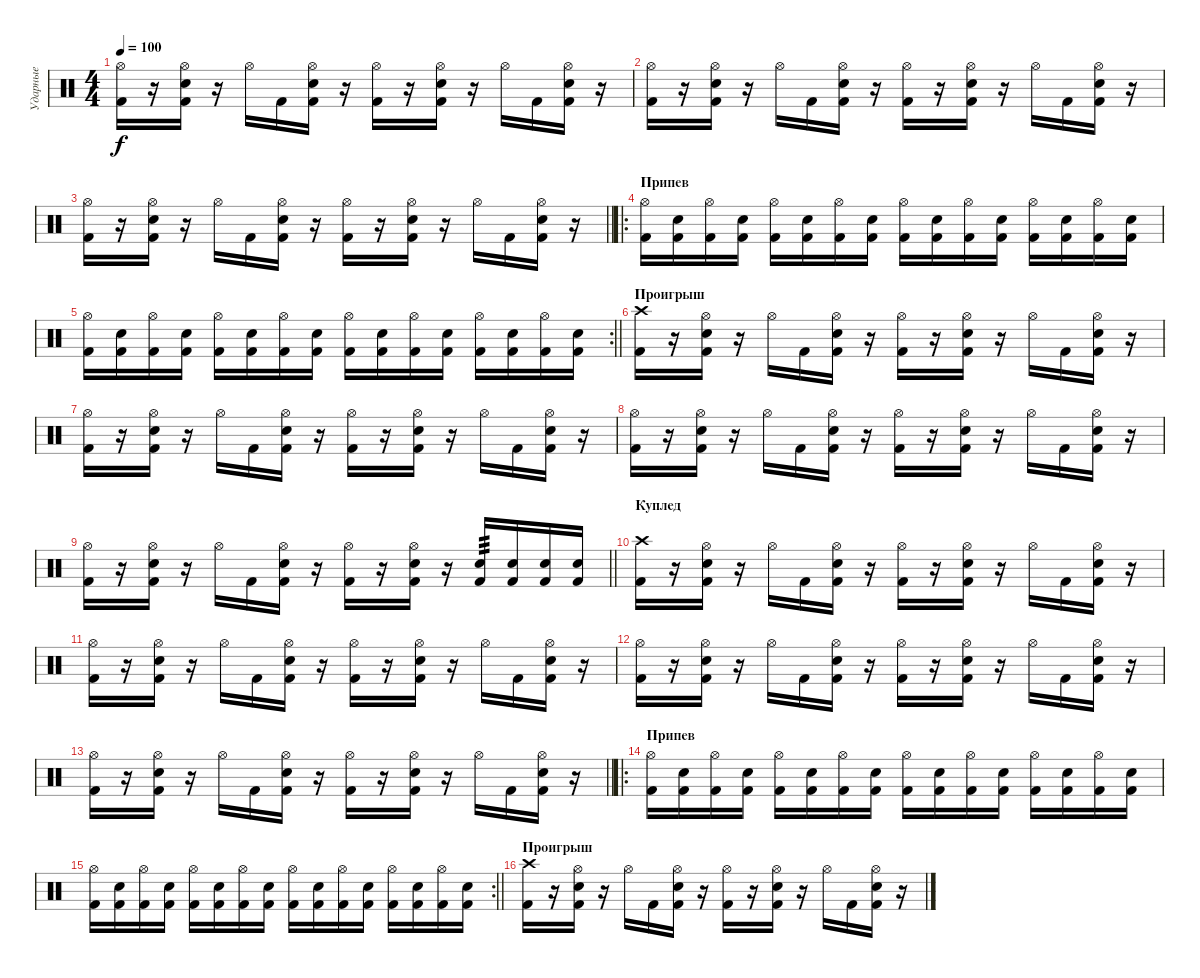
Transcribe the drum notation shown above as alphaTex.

\track ("Ударные" "Ударные") {instrument percussion}
\staff {score}
\articulation defaults
\ts (4 4)
\tempo 100
\clef neutral
\ks c
("Kick (hit) 2" "Hi-Hat (open)").16{dy f} r.16 ("Kick (hit) 2" "Electric Snare (hit)" "Hi-Hat (open)").16 r.16 "Hi-Hat (open)".16 "Kick (hit) 2".16 ("Kick (hit) 2" "Electric Snare (hit)" "Hi-Hat (open)").16 r.16 ("Kick (hit) 2" "Hi-Hat (open)").16 r.16 ("Kick (hit) 2" "Electric Snare (hit)" "Hi-Hat (open)").16 r.16 "Hi-Hat (open)".16 "Kick (hit) 2".16 ("Kick (hit) 2" "Electric Snare (hit)" "Hi-Hat (open)").16 r.16 |
("Kick (hit) 2" "Hi-Hat (open)").16 r.16 ("Kick (hit) 2" "Electric Snare (hit)" "Hi-Hat (open)").16 r.16 "Hi-Hat (open)".16 "Kick (hit) 2".16 ("Kick (hit) 2" "Electric Snare (hit)" "Hi-Hat (open)").16 r.16 ("Kick (hit) 2" "Hi-Hat (open)").16 r.16 ("Kick (hit) 2" "Electric Snare (hit)" "Hi-Hat (open)").16 r.16 "Hi-Hat (open)".16 "Kick (hit) 2".16 ("Kick (hit) 2" "Electric Snare (hit)" "Hi-Hat (open)").16 r.16 |
\barLineRight lightlight
("Kick (hit) 2" "Hi-Hat (open)").16 r.16 ("Kick (hit) 2" "Electric Snare (hit)" "Hi-Hat (open)").16 r.16 "Hi-Hat (open)".16 "Kick (hit) 2".16 ("Kick (hit) 2" "Electric Snare (hit)" "Hi-Hat (open)").16 r.16 ("Kick (hit) 2" "Hi-Hat (open)").16 r.16 ("Kick (hit) 2" "Electric Snare (hit)" "Hi-Hat (open)").16 r.16 "Hi-Hat (open)".16 "Kick (hit) 2".16 ("Kick (hit) 2" "Electric Snare (hit)" "Hi-Hat (open)").16 r.16 |
\ro
\section ("" "Припев")
("Kick (hit) 2" "Hi-Hat (open)").16 ("Electric Snare (hit)" "Kick (hit) 2").16 ("Kick (hit) 2" "Hi-Hat (open)").16 ("Electric Snare (hit)" "Kick (hit) 2").16 ("Kick (hit) 2" "Hi-Hat (open)").16 ("Electric Snare (hit)" "Kick (hit) 2").16 ("Kick (hit) 2" "Hi-Hat (open)").16 ("Electric Snare (hit)" "Kick (hit) 2").16 ("Kick (hit) 2" "Hi-Hat (open)").16 ("Electric Snare (hit)" "Kick (hit) 2").16 ("Kick (hit) 2" "Hi-Hat (open)").16 ("Electric Snare (hit)" "Kick (hit) 2").16 ("Kick (hit) 2" "Hi-Hat (open)").16 ("Electric Snare (hit)" "Kick (hit) 2").16 ("Kick (hit) 2" "Hi-Hat (open)").16 ("Electric Snare (hit)" "Kick (hit) 2").16 |
\rc 2
\barLineRight lightlight
("Kick (hit) 2" "Hi-Hat (open)").16 ("Electric Snare (hit)" "Kick (hit) 2").16 ("Kick (hit) 2" "Hi-Hat (open)").16 ("Electric Snare (hit)" "Kick (hit) 2").16 ("Kick (hit) 2" "Hi-Hat (open)").16 ("Electric Snare (hit)" "Kick (hit) 2").16 ("Kick (hit) 2" "Hi-Hat (open)").16 ("Electric Snare (hit)" "Kick (hit) 2").16 ("Kick (hit) 2" "Hi-Hat (open)").16 ("Electric Snare (hit)" "Kick (hit) 2").16 ("Kick (hit) 2" "Hi-Hat (open)").16 ("Electric Snare (hit)" "Kick (hit) 2").16 ("Kick (hit) 2" "Hi-Hat (open)").16 ("Electric Snare (hit)" "Kick (hit) 2").16 ("Kick (hit) 2" "Hi-Hat (open)").16 ("Electric Snare (hit)" "Kick (hit) 2").16 |
\section ("" "Проигрыш")
("Kick (hit) 2" "Crash high (hit)").16 r.16 ("Kick (hit) 2" "Electric Snare (hit)" "Hi-Hat (open)").16 r.16 "Hi-Hat (open)".16 "Kick (hit) 2".16 ("Kick (hit) 2" "Electric Snare (hit)" "Hi-Hat (open)").16 r.16 ("Kick (hit) 2" "Hi-Hat (open)").16 r.16 ("Kick (hit) 2" "Electric Snare (hit)" "Hi-Hat (open)").16 r.16 "Hi-Hat (open)".16 "Kick (hit) 2".16 ("Kick (hit) 2" "Electric Snare (hit)" "Hi-Hat (open)").16 r.16 |
("Kick (hit) 2" "Hi-Hat (open)").16 r.16 ("Kick (hit) 2" "Electric Snare (hit)" "Hi-Hat (open)").16 r.16 "Hi-Hat (open)".16 "Kick (hit) 2".16 ("Kick (hit) 2" "Electric Snare (hit)" "Hi-Hat (open)").16 r.16 ("Kick (hit) 2" "Hi-Hat (open)").16 r.16 ("Kick (hit) 2" "Electric Snare (hit)" "Hi-Hat (open)").16 r.16 "Hi-Hat (open)".16 "Kick (hit) 2".16 ("Kick (hit) 2" "Electric Snare (hit)" "Hi-Hat (open)").16 r.16 |
("Kick (hit) 2" "Hi-Hat (open)").16 r.16 ("Kick (hit) 2" "Electric Snare (hit)" "Hi-Hat (open)").16 r.16 "Hi-Hat (open)".16 "Kick (hit) 2".16 ("Kick (hit) 2" "Electric Snare (hit)" "Hi-Hat (open)").16 r.16 ("Kick (hit) 2" "Hi-Hat (open)").16 r.16 ("Kick (hit) 2" "Electric Snare (hit)" "Hi-Hat (open)").16 r.16 "Hi-Hat (open)".16 "Kick (hit) 2".16 ("Kick (hit) 2" "Electric Snare (hit)" "Hi-Hat (open)").16 r.16 |
\barLineRight lightlight
("Kick (hit) 2" "Hi-Hat (open)").16 r.16 ("Kick (hit) 2" "Electric Snare (hit)" "Hi-Hat (open)").16 r.16 "Hi-Hat (open)".16 "Kick (hit) 2".16 ("Kick (hit) 2" "Electric Snare (hit)" "Hi-Hat (open)").16 r.16 ("Kick (hit) 2" "Hi-Hat (open)").16 r.16 ("Kick (hit) 2" "Electric Snare (hit)" "Hi-Hat (open)").16 r.16 ("Kick (hit) 2" "Electric Snare (hit)").16{tp 3} ("Kick (hit) 2" "Electric Snare (hit)").16 ("Kick (hit) 2" "Electric Snare (hit)").16 ("Kick (hit) 2" "Electric Snare (hit)").16 |
\section ("" "Куплед")
("Kick (hit) 2" "Crash high (hit)").16 r.16 ("Kick (hit) 2" "Electric Snare (hit)" "Hi-Hat (open)").16 r.16 "Hi-Hat (open)".16 "Kick (hit) 2".16 ("Kick (hit) 2" "Electric Snare (hit)" "Hi-Hat (open)").16 r.16 ("Kick (hit) 2" "Hi-Hat (open)").16 r.16 ("Kick (hit) 2" "Electric Snare (hit)" "Hi-Hat (open)").16 r.16 "Hi-Hat (open)".16 "Kick (hit) 2".16 ("Kick (hit) 2" "Electric Snare (hit)" "Hi-Hat (open)").16 r.16 |
("Kick (hit) 2" "Hi-Hat (open)").16 r.16 ("Kick (hit) 2" "Electric Snare (hit)" "Hi-Hat (open)").16 r.16 "Hi-Hat (open)".16 "Kick (hit) 2".16 ("Kick (hit) 2" "Electric Snare (hit)" "Hi-Hat (open)").16 r.16 ("Kick (hit) 2" "Hi-Hat (open)").16 r.16 ("Kick (hit) 2" "Electric Snare (hit)" "Hi-Hat (open)").16 r.16 "Hi-Hat (open)".16 "Kick (hit) 2".16 ("Kick (hit) 2" "Electric Snare (hit)" "Hi-Hat (open)").16 r.16 |
("Kick (hit) 2" "Hi-Hat (open)").16 r.16 ("Kick (hit) 2" "Electric Snare (hit)" "Hi-Hat (open)").16 r.16 "Hi-Hat (open)".16 "Kick (hit) 2".16 ("Kick (hit) 2" "Electric Snare (hit)" "Hi-Hat (open)").16 r.16 ("Kick (hit) 2" "Hi-Hat (open)").16 r.16 ("Kick (hit) 2" "Electric Snare (hit)" "Hi-Hat (open)").16 r.16 "Hi-Hat (open)".16 "Kick (hit) 2".16 ("Kick (hit) 2" "Electric Snare (hit)" "Hi-Hat (open)").16 r.16 |
\barLineRight lightlight
("Kick (hit) 2" "Hi-Hat (open)").16 r.16 ("Kick (hit) 2" "Electric Snare (hit)" "Hi-Hat (open)").16 r.16 "Hi-Hat (open)".16 "Kick (hit) 2".16 ("Kick (hit) 2" "Electric Snare (hit)" "Hi-Hat (open)").16 r.16 ("Kick (hit) 2" "Hi-Hat (open)").16 r.16 ("Kick (hit) 2" "Electric Snare (hit)" "Hi-Hat (open)").16 r.16 "Hi-Hat (open)".16 "Kick (hit) 2".16 ("Kick (hit) 2" "Electric Snare (hit)" "Hi-Hat (open)").16 r.16 |
\ro
\section ("" "Припев")
("Kick (hit) 2" "Hi-Hat (open)").16 ("Electric Snare (hit)" "Kick (hit) 2").16 ("Kick (hit) 2" "Hi-Hat (open)").16 ("Electric Snare (hit)" "Kick (hit) 2").16 ("Kick (hit) 2" "Hi-Hat (open)").16 ("Electric Snare (hit)" "Kick (hit) 2").16 ("Kick (hit) 2" "Hi-Hat (open)").16 ("Electric Snare (hit)" "Kick (hit) 2").16 ("Kick (hit) 2" "Hi-Hat (open)").16 ("Electric Snare (hit)" "Kick (hit) 2").16 ("Kick (hit) 2" "Hi-Hat (open)").16 ("Electric Snare (hit)" "Kick (hit) 2").16 ("Kick (hit) 2" "Hi-Hat (open)").16 ("Electric Snare (hit)" "Kick (hit) 2").16 ("Kick (hit) 2" "Hi-Hat (open)").16 ("Electric Snare (hit)" "Kick (hit) 2").16 |
\rc 2
\barLineRight lightlight
("Kick (hit) 2" "Hi-Hat (open)").16 ("Electric Snare (hit)" "Kick (hit) 2").16 ("Kick (hit) 2" "Hi-Hat (open)").16 ("Electric Snare (hit)" "Kick (hit) 2").16 ("Kick (hit) 2" "Hi-Hat (open)").16 ("Electric Snare (hit)" "Kick (hit) 2").16 ("Kick (hit) 2" "Hi-Hat (open)").16 ("Electric Snare (hit)" "Kick (hit) 2").16 ("Kick (hit) 2" "Hi-Hat (open)").16 ("Electric Snare (hit)" "Kick (hit) 2").16 ("Kick (hit) 2" "Hi-Hat (open)").16 ("Electric Snare (hit)" "Kick (hit) 2").16 ("Kick (hit) 2" "Hi-Hat (open)").16 ("Electric Snare (hit)" "Kick (hit) 2").16 ("Kick (hit) 2" "Hi-Hat (open)").16 ("Electric Snare (hit)" "Kick (hit) 2").16 |
\section ("" "Проигрыш")
("Kick (hit) 2" "Crash high (hit)").16 r.16 ("Kick (hit) 2" "Electric Snare (hit)" "Hi-Hat (open)").16 r.16 "Hi-Hat (open)".16 "Kick (hit) 2".16 ("Kick (hit) 2" "Electric Snare (hit)" "Hi-Hat (open)").16 r.16 ("Kick (hit) 2" "Hi-Hat (open)").16 r.16 ("Kick (hit) 2" "Electric Snare (hit)" "Hi-Hat (open)").16 r.16 "Hi-Hat (open)".16 "Kick (hit) 2".16 ("Kick (hit) 2" "Electric Snare (hit)" "Hi-Hat (open)").16 r.16
